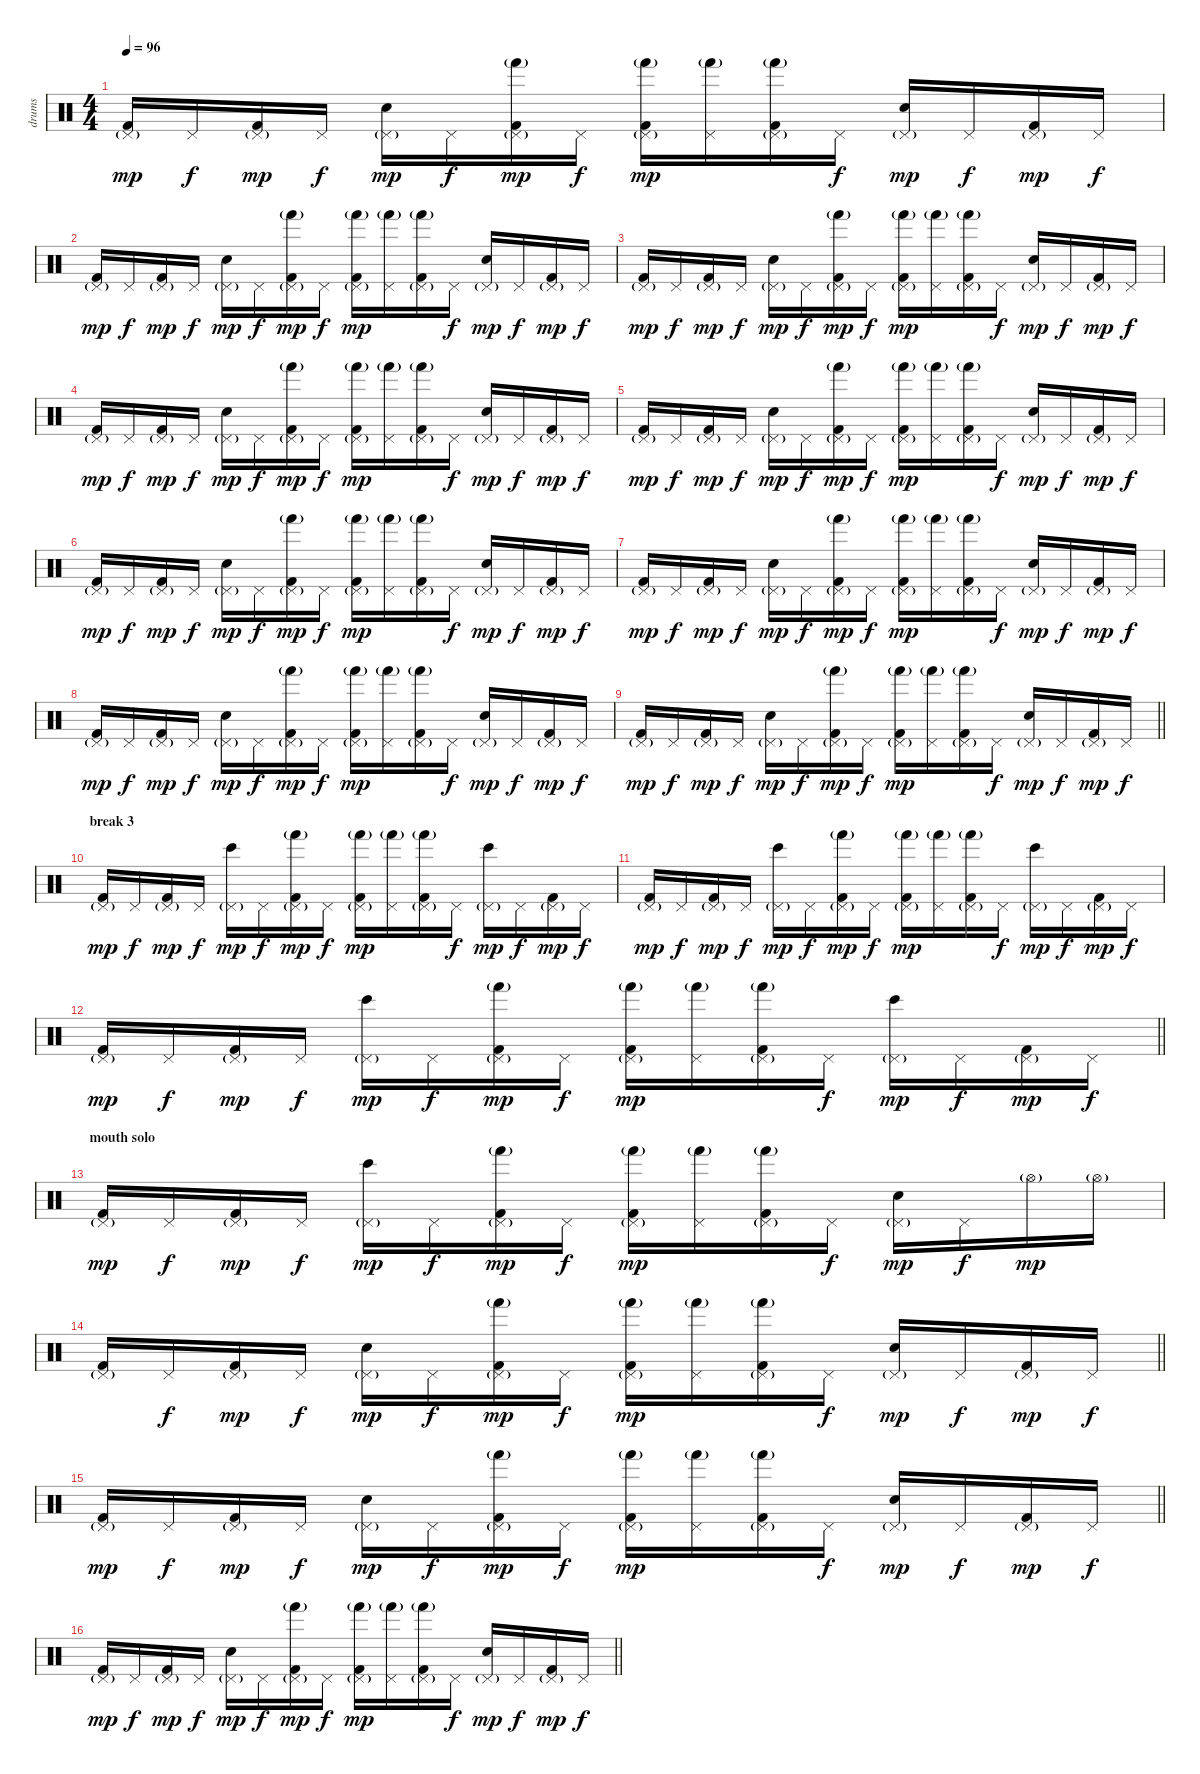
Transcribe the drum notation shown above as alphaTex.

\track ("drums" "drums") {instrument percussion}
\staff {score}
\articulation defaults
\ts (4 4)
\tempo 96
\clef neutral
\ks c
("Kick (hit) 2" "Pedal Hi-Hat (hit)"{g}).16{dy mp} "Pedal Hi-Hat (hit)".16{dy f} ("Kick (hit) 2" "Pedal Hi-Hat (hit)"{g}).16{dy mp} "Pedal Hi-Hat (hit)".16{dy f} ("Snare (hit) 2" "Pedal Hi-Hat (hit)"{g}).16{dy mp} "Pedal Hi-Hat (hit)".16{dy f} ("Kick (hit) 2" "Hand (hit)"{g} "Pedal Hi-Hat (hit)"{g}).16{dy mp} "Pedal Hi-Hat (hit)".16{dy f} ("Kick (hit) 2" "Hand (hit)"{g} "Pedal Hi-Hat (hit)"{g}).16{dy mp} ("Hand (hit)"{g} "Pedal Hi-Hat (hit)").16 ("Kick (hit) 2" "Hand (hit)"{g} "Pedal Hi-Hat (hit)"{g}).16 "Pedal Hi-Hat (hit)".16{dy f} ("Snare (hit) 2" "Pedal Hi-Hat (hit)"{g}).16{dy mp} "Pedal Hi-Hat (hit)".16{dy f} ("Kick (hit) 2" "Pedal Hi-Hat (hit)"{g}).16{dy mp} "Pedal Hi-Hat (hit)".16{dy f} |
("Kick (hit) 2" "Pedal Hi-Hat (hit)"{g}).16{dy mp} "Pedal Hi-Hat (hit)".16{dy f} ("Kick (hit) 2" "Pedal Hi-Hat (hit)"{g}).16{dy mp} "Pedal Hi-Hat (hit)".16{dy f} ("Snare (hit) 2" "Pedal Hi-Hat (hit)"{g}).16{dy mp} "Pedal Hi-Hat (hit)".16{dy f} ("Kick (hit) 2" "Hand (hit)"{g} "Pedal Hi-Hat (hit)"{g}).16{dy mp} "Pedal Hi-Hat (hit)".16{dy f} ("Kick (hit) 2" "Hand (hit)"{g} "Pedal Hi-Hat (hit)"{g}).16{dy mp} ("Hand (hit)"{g} "Pedal Hi-Hat (hit)").16 ("Kick (hit) 2" "Hand (hit)"{g} "Pedal Hi-Hat (hit)"{g}).16 "Pedal Hi-Hat (hit)".16{dy f} ("Snare (hit) 2" "Pedal Hi-Hat (hit)"{g}).16{dy mp} "Pedal Hi-Hat (hit)".16{dy f} ("Kick (hit) 2" "Pedal Hi-Hat (hit)"{g}).16{dy mp} "Pedal Hi-Hat (hit)".16{dy f} |
("Kick (hit) 2" "Pedal Hi-Hat (hit)"{g}).16{dy mp} "Pedal Hi-Hat (hit)".16{dy f} ("Kick (hit) 2" "Pedal Hi-Hat (hit)"{g}).16{dy mp} "Pedal Hi-Hat (hit)".16{dy f} ("Snare (hit) 2" "Pedal Hi-Hat (hit)"{g}).16{dy mp} "Pedal Hi-Hat (hit)".16{dy f} ("Kick (hit) 2" "Hand (hit)"{g} "Pedal Hi-Hat (hit)"{g}).16{dy mp} "Pedal Hi-Hat (hit)".16{dy f} ("Kick (hit) 2" "Hand (hit)"{g} "Pedal Hi-Hat (hit)"{g}).16{dy mp} ("Hand (hit)"{g} "Pedal Hi-Hat (hit)").16 ("Kick (hit) 2" "Hand (hit)"{g} "Pedal Hi-Hat (hit)"{g}).16 "Pedal Hi-Hat (hit)".16{dy f} ("Snare (hit) 2" "Pedal Hi-Hat (hit)"{g}).16{dy mp} "Pedal Hi-Hat (hit)".16{dy f} ("Kick (hit) 2" "Pedal Hi-Hat (hit)"{g}).16{dy mp} "Pedal Hi-Hat (hit)".16{dy f} |
("Kick (hit) 2" "Pedal Hi-Hat (hit)"{g}).16{dy mp} "Pedal Hi-Hat (hit)".16{dy f} ("Kick (hit) 2" "Pedal Hi-Hat (hit)"{g}).16{dy mp} "Pedal Hi-Hat (hit)".16{dy f} ("Snare (hit) 2" "Pedal Hi-Hat (hit)"{g}).16{dy mp} "Pedal Hi-Hat (hit)".16{dy f} ("Kick (hit) 2" "Hand (hit)"{g} "Pedal Hi-Hat (hit)"{g}).16{dy mp} "Pedal Hi-Hat (hit)".16{dy f} ("Kick (hit) 2" "Hand (hit)"{g} "Pedal Hi-Hat (hit)"{g}).16{dy mp} ("Hand (hit)"{g} "Pedal Hi-Hat (hit)").16 ("Kick (hit) 2" "Hand (hit)"{g} "Pedal Hi-Hat (hit)"{g}).16 "Pedal Hi-Hat (hit)".16{dy f} ("Snare (hit) 2" "Pedal Hi-Hat (hit)"{g}).16{dy mp} "Pedal Hi-Hat (hit)".16{dy f} ("Kick (hit) 2" "Pedal Hi-Hat (hit)"{g}).16{dy mp} "Pedal Hi-Hat (hit)".16{dy f} |
("Kick (hit) 2" "Pedal Hi-Hat (hit)"{g}).16{dy mp} "Pedal Hi-Hat (hit)".16{dy f} ("Kick (hit) 2" "Pedal Hi-Hat (hit)"{g}).16{dy mp} "Pedal Hi-Hat (hit)".16{dy f} ("Snare (hit) 2" "Pedal Hi-Hat (hit)"{g}).16{dy mp} "Pedal Hi-Hat (hit)".16{dy f} ("Kick (hit) 2" "Hand (hit)"{g} "Pedal Hi-Hat (hit)"{g}).16{dy mp} "Pedal Hi-Hat (hit)".16{dy f} ("Kick (hit) 2" "Hand (hit)"{g} "Pedal Hi-Hat (hit)"{g}).16{dy mp} ("Hand (hit)"{g} "Pedal Hi-Hat (hit)").16 ("Kick (hit) 2" "Hand (hit)"{g} "Pedal Hi-Hat (hit)"{g}).16 "Pedal Hi-Hat (hit)".16{dy f} ("Snare (hit) 2" "Pedal Hi-Hat (hit)"{g}).16{dy mp} "Pedal Hi-Hat (hit)".16{dy f} ("Kick (hit) 2" "Pedal Hi-Hat (hit)"{g}).16{dy mp} "Pedal Hi-Hat (hit)".16{dy f} |
("Kick (hit) 2" "Pedal Hi-Hat (hit)"{g}).16{dy mp} "Pedal Hi-Hat (hit)".16{dy f} ("Kick (hit) 2" "Pedal Hi-Hat (hit)"{g}).16{dy mp} "Pedal Hi-Hat (hit)".16{dy f} ("Snare (hit) 2" "Pedal Hi-Hat (hit)"{g}).16{dy mp} "Pedal Hi-Hat (hit)".16{dy f} ("Kick (hit) 2" "Hand (hit)"{g} "Pedal Hi-Hat (hit)"{g}).16{dy mp} "Pedal Hi-Hat (hit)".16{dy f} ("Kick (hit) 2" "Hand (hit)"{g} "Pedal Hi-Hat (hit)"{g}).16{dy mp} ("Hand (hit)"{g} "Pedal Hi-Hat (hit)").16 ("Kick (hit) 2" "Hand (hit)"{g} "Pedal Hi-Hat (hit)"{g}).16 "Pedal Hi-Hat (hit)".16{dy f} ("Snare (hit) 2" "Pedal Hi-Hat (hit)"{g}).16{dy mp} "Pedal Hi-Hat (hit)".16{dy f} ("Kick (hit) 2" "Pedal Hi-Hat (hit)"{g}).16{dy mp} "Pedal Hi-Hat (hit)".16{dy f} |
("Kick (hit) 2" "Pedal Hi-Hat (hit)"{g}).16{dy mp} "Pedal Hi-Hat (hit)".16{dy f} ("Kick (hit) 2" "Pedal Hi-Hat (hit)"{g}).16{dy mp} "Pedal Hi-Hat (hit)".16{dy f} ("Snare (hit) 2" "Pedal Hi-Hat (hit)"{g}).16{dy mp} "Pedal Hi-Hat (hit)".16{dy f} ("Kick (hit) 2" "Hand (hit)"{g} "Pedal Hi-Hat (hit)"{g}).16{dy mp} "Pedal Hi-Hat (hit)".16{dy f} ("Kick (hit) 2" "Hand (hit)"{g} "Pedal Hi-Hat (hit)"{g}).16{dy mp} ("Hand (hit)"{g} "Pedal Hi-Hat (hit)").16 ("Kick (hit) 2" "Hand (hit)"{g} "Pedal Hi-Hat (hit)"{g}).16 "Pedal Hi-Hat (hit)".16{dy f} ("Snare (hit) 2" "Pedal Hi-Hat (hit)"{g}).16{dy mp} "Pedal Hi-Hat (hit)".16{dy f} ("Kick (hit) 2" "Pedal Hi-Hat (hit)"{g}).16{dy mp} "Pedal Hi-Hat (hit)".16{dy f} |
("Kick (hit) 2" "Pedal Hi-Hat (hit)"{g}).16{dy mp} "Pedal Hi-Hat (hit)".16{dy f} ("Kick (hit) 2" "Pedal Hi-Hat (hit)"{g}).16{dy mp} "Pedal Hi-Hat (hit)".16{dy f} ("Snare (hit) 2" "Pedal Hi-Hat (hit)"{g}).16{dy mp} "Pedal Hi-Hat (hit)".16{dy f} ("Kick (hit) 2" "Hand (hit)"{g} "Pedal Hi-Hat (hit)"{g}).16{dy mp} "Pedal Hi-Hat (hit)".16{dy f} ("Kick (hit) 2" "Hand (hit)"{g} "Pedal Hi-Hat (hit)"{g}).16{dy mp} ("Hand (hit)"{g} "Pedal Hi-Hat (hit)").16 ("Kick (hit) 2" "Hand (hit)"{g} "Pedal Hi-Hat (hit)"{g}).16 "Pedal Hi-Hat (hit)".16{dy f} ("Snare (hit) 2" "Pedal Hi-Hat (hit)"{g}).16{dy mp} "Pedal Hi-Hat (hit)".16{dy f} ("Kick (hit) 2" "Pedal Hi-Hat (hit)"{g}).16{dy mp} "Pedal Hi-Hat (hit)".16{dy f} |
\barLineRight lightlight
("Kick (hit) 2" "Pedal Hi-Hat (hit)"{g}).16{dy mp} "Pedal Hi-Hat (hit)".16{dy f} ("Kick (hit) 2" "Pedal Hi-Hat (hit)"{g}).16{dy mp} "Pedal Hi-Hat (hit)".16{dy f} ("Snare (hit) 2" "Pedal Hi-Hat (hit)"{g}).16{dy mp} "Pedal Hi-Hat (hit)".16{dy f} ("Kick (hit) 2" "Hand (hit)"{g} "Pedal Hi-Hat (hit)"{g}).16{dy mp} "Pedal Hi-Hat (hit)".16{dy f} ("Kick (hit) 2" "Hand (hit)"{g} "Pedal Hi-Hat (hit)"{g}).16{dy mp} ("Hand (hit)"{g} "Pedal Hi-Hat (hit)").16 ("Kick (hit) 2" "Hand (hit)"{g} "Pedal Hi-Hat (hit)"{g}).16 "Pedal Hi-Hat (hit)".16{dy f} ("Snare (hit) 2" "Pedal Hi-Hat (hit)"{g}).16{dy mp} "Pedal Hi-Hat (hit)".16{dy f} ("Kick (hit) 2" "Pedal Hi-Hat (hit)"{g}).16{dy mp} "Pedal Hi-Hat (hit)".16{dy f} |
\section ("" "break 3")
("Kick (hit) 2" "Pedal Hi-Hat (hit)"{g}).16{dy mp} "Pedal Hi-Hat (hit)".16{dy f} ("Kick (hit) 2" "Pedal Hi-Hat (hit)"{g}).16{dy mp} "Pedal Hi-Hat (hit)".16{dy f} ("Bongo High (hit)" "Pedal Hi-Hat (hit)"{g}).16{dy mp} "Pedal Hi-Hat (hit)".16{dy f} ("Kick (hit) 2" "Hand (hit)"{g} "Pedal Hi-Hat (hit)"{g}).16{dy mp} "Pedal Hi-Hat (hit)".16{dy f} ("Kick (hit) 2" "Hand (hit)"{g} "Pedal Hi-Hat (hit)"{g}).16{dy mp} ("Hand (hit)"{g} "Pedal Hi-Hat (hit)").16 ("Kick (hit) 2" "Hand (hit)"{g} "Pedal Hi-Hat (hit)"{g}).16 "Pedal Hi-Hat (hit)".16{dy f} ("Bongo High (hit)" "Pedal Hi-Hat (hit)"{g}).16{dy mp} "Pedal Hi-Hat (hit)".16{dy f} ("Kick (hit) 2" "Pedal Hi-Hat (hit)"{g}).16{dy mp} "Pedal Hi-Hat (hit)".16{dy f} |
("Kick (hit) 2" "Pedal Hi-Hat (hit)"{g}).16{dy mp} "Pedal Hi-Hat (hit)".16{dy f} ("Kick (hit) 2" "Pedal Hi-Hat (hit)"{g}).16{dy mp} "Pedal Hi-Hat (hit)".16{dy f} ("Bongo High (hit)" "Pedal Hi-Hat (hit)"{g}).16{dy mp} "Pedal Hi-Hat (hit)".16{dy f} ("Kick (hit) 2" "Hand (hit)"{g} "Pedal Hi-Hat (hit)"{g}).16{dy mp} "Pedal Hi-Hat (hit)".16{dy f} ("Kick (hit) 2" "Hand (hit)"{g} "Pedal Hi-Hat (hit)"{g}).16{dy mp} ("Hand (hit)"{g} "Pedal Hi-Hat (hit)").16 ("Kick (hit) 2" "Hand (hit)"{g} "Pedal Hi-Hat (hit)"{g}).16 "Pedal Hi-Hat (hit)".16{dy f} ("Bongo High (hit)" "Pedal Hi-Hat (hit)"{g}).16{dy mp} "Pedal Hi-Hat (hit)".16{dy f} ("Kick (hit) 2" "Pedal Hi-Hat (hit)"{g}).16{dy mp} "Pedal Hi-Hat (hit)".16{dy f} |
\barLineRight lightlight
("Kick (hit) 2" "Pedal Hi-Hat (hit)"{g}).16{dy mp} "Pedal Hi-Hat (hit)".16{dy f} ("Kick (hit) 2" "Pedal Hi-Hat (hit)"{g}).16{dy mp} "Pedal Hi-Hat (hit)".16{dy f} ("Bongo High (hit)" "Pedal Hi-Hat (hit)"{g}).16{dy mp} "Pedal Hi-Hat (hit)".16{dy f} ("Kick (hit) 2" "Hand (hit)"{g} "Pedal Hi-Hat (hit)"{g}).16{dy mp} "Pedal Hi-Hat (hit)".16{dy f} ("Kick (hit) 2" "Hand (hit)"{g} "Pedal Hi-Hat (hit)"{g}).16{dy mp} ("Hand (hit)"{g} "Pedal Hi-Hat (hit)").16 ("Kick (hit) 2" "Hand (hit)"{g} "Pedal Hi-Hat (hit)"{g}).16 "Pedal Hi-Hat (hit)".16{dy f} ("Bongo High (hit)" "Pedal Hi-Hat (hit)"{g}).16{dy mp} "Pedal Hi-Hat (hit)".16{dy f} ("Kick (hit) 2" "Pedal Hi-Hat (hit)"{g}).16{dy mp} "Pedal Hi-Hat (hit)".16{dy f} |
\section ("" "mouth solo")
("Kick (hit) 2" "Pedal Hi-Hat (hit)"{g}).16{dy mp} "Pedal Hi-Hat (hit)".16{dy f} ("Kick (hit) 2" "Pedal Hi-Hat (hit)"{g}).16{dy mp} "Pedal Hi-Hat (hit)".16{dy f} ("Bongo High (hit)" "Pedal Hi-Hat (hit)"{g}).16{dy mp} "Pedal Hi-Hat (hit)".16{dy f} ("Kick (hit) 2" "Hand (hit)"{g} "Pedal Hi-Hat (hit)"{g}).16{dy mp} "Pedal Hi-Hat (hit)".16{dy f} ("Kick (hit) 2" "Hand (hit)"{g} "Pedal Hi-Hat (hit)"{g}).16{dy mp} ("Hand (hit)"{g} "Pedal Hi-Hat (hit)").16 ("Kick (hit) 2" "Hand (hit)"{g} "Pedal Hi-Hat (hit)"{g}).16 "Pedal Hi-Hat (hit)".16{dy f} ("Snare (hit) 2" "Pedal Hi-Hat (hit)"{g}).16{dy mp} "Pedal Hi-Hat (hit)".16{dy f} "Hi-Hat (open)"{g}.16{dy mp} "Hi-Hat (open)"{g}.16 |
\barLineRight lightlight
("Kick (hit) 2" "Pedal Hi-Hat (hit)"{g}).16 "Pedal Hi-Hat (hit)".16{dy f} ("Kick (hit) 2" "Pedal Hi-Hat (hit)"{g}).16{dy mp} "Pedal Hi-Hat (hit)".16{dy f} ("Snare (hit) 2" "Pedal Hi-Hat (hit)"{g}).16{dy mp} "Pedal Hi-Hat (hit)".16{dy f} ("Kick (hit) 2" "Hand (hit)"{g} "Pedal Hi-Hat (hit)"{g}).16{dy mp} "Pedal Hi-Hat (hit)".16{dy f} ("Kick (hit) 2" "Hand (hit)"{g} "Pedal Hi-Hat (hit)"{g}).16{dy mp} ("Hand (hit)"{g} "Pedal Hi-Hat (hit)").16 ("Kick (hit) 2" "Hand (hit)"{g} "Pedal Hi-Hat (hit)"{g}).16 "Pedal Hi-Hat (hit)".16{dy f} ("Snare (hit) 2" "Pedal Hi-Hat (hit)"{g}).16{dy mp} "Pedal Hi-Hat (hit)".16{dy f} ("Kick (hit) 2" "Pedal Hi-Hat (hit)"{g}).16{dy mp} "Pedal Hi-Hat (hit)".16{dy f} |
\barLineRight lightlight
("Kick (hit) 2" "Pedal Hi-Hat (hit)"{g}).16{dy mp} "Pedal Hi-Hat (hit)".16{dy f} ("Kick (hit) 2" "Pedal Hi-Hat (hit)"{g}).16{dy mp} "Pedal Hi-Hat (hit)".16{dy f} ("Snare (hit) 2" "Pedal Hi-Hat (hit)"{g}).16{dy mp} "Pedal Hi-Hat (hit)".16{dy f} ("Kick (hit) 2" "Hand (hit)"{g} "Pedal Hi-Hat (hit)"{g}).16{dy mp} "Pedal Hi-Hat (hit)".16{dy f} ("Kick (hit) 2" "Hand (hit)"{g} "Pedal Hi-Hat (hit)"{g}).16{dy mp} ("Hand (hit)"{g} "Pedal Hi-Hat (hit)").16 ("Kick (hit) 2" "Hand (hit)"{g} "Pedal Hi-Hat (hit)"{g}).16 "Pedal Hi-Hat (hit)".16{dy f} ("Snare (hit) 2" "Pedal Hi-Hat (hit)"{g}).16{dy mp} "Pedal Hi-Hat (hit)".16{dy f} ("Kick (hit) 2" "Pedal Hi-Hat (hit)"{g}).16{dy mp} "Pedal Hi-Hat (hit)".16{dy f} |
\barLineRight lightlight
("Kick (hit) 2" "Pedal Hi-Hat (hit)"{g}).16{dy mp} "Pedal Hi-Hat (hit)".16{dy f} ("Kick (hit) 2" "Pedal Hi-Hat (hit)"{g}).16{dy mp} "Pedal Hi-Hat (hit)".16{dy f} ("Snare (hit) 2" "Pedal Hi-Hat (hit)"{g}).16{dy mp} "Pedal Hi-Hat (hit)".16{dy f} ("Kick (hit) 2" "Hand (hit)"{g} "Pedal Hi-Hat (hit)"{g}).16{dy mp} "Pedal Hi-Hat (hit)".16{dy f} ("Kick (hit) 2" "Hand (hit)"{g} "Pedal Hi-Hat (hit)"{g}).16{dy mp} ("Hand (hit)"{g} "Pedal Hi-Hat (hit)").16 ("Kick (hit) 2" "Hand (hit)"{g} "Pedal Hi-Hat (hit)"{g}).16 "Pedal Hi-Hat (hit)".16{dy f} ("Snare (hit) 2" "Pedal Hi-Hat (hit)"{g}).16{dy mp} "Pedal Hi-Hat (hit)".16{dy f} ("Kick (hit) 2" "Pedal Hi-Hat (hit)"{g}).16{dy mp} "Pedal Hi-Hat (hit)".16{dy f}
